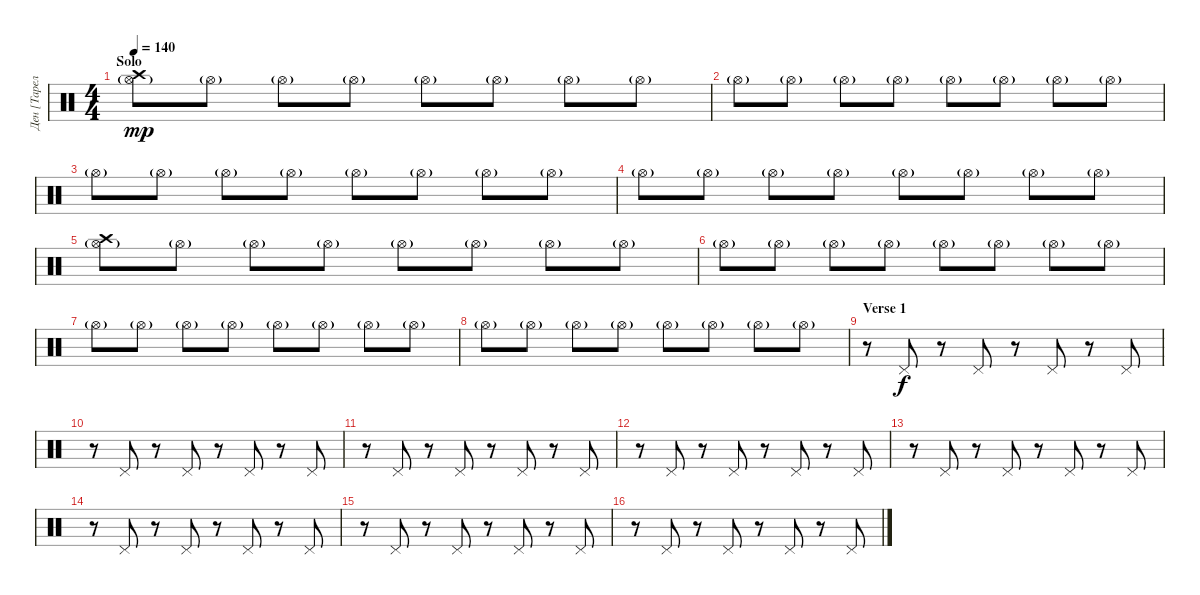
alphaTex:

\track ("Ден [Тарелки]" "Ден [Тарел") {instrument percussion}
\staff {score}
\articulation defaults
\ts (4 4)
\section ("" "Solo")
\tempo 140
\clef neutral
\ks c
("Hi-Hat (open)"{g} "Crash high (hit)").8{dy mp} "Hi-Hat (open)"{g}.8 "Hi-Hat (open)"{g}.8 "Hi-Hat (open)"{g}.8 "Hi-Hat (open)"{g}.8 "Hi-Hat (open)"{g}.8 "Hi-Hat (open)"{g}.8 "Hi-Hat (open)"{g}.8 |
"Hi-Hat (open)"{g}.8 "Hi-Hat (open)"{g}.8 "Hi-Hat (open)"{g}.8 "Hi-Hat (open)"{g}.8 "Hi-Hat (open)"{g}.8 "Hi-Hat (open)"{g}.8 "Hi-Hat (open)"{g}.8 "Hi-Hat (open)"{g}.8 |
"Hi-Hat (open)"{g}.8 "Hi-Hat (open)"{g}.8 "Hi-Hat (open)"{g}.8 "Hi-Hat (open)"{g}.8 "Hi-Hat (open)"{g}.8 "Hi-Hat (open)"{g}.8 "Hi-Hat (open)"{g}.8 "Hi-Hat (open)"{g}.8 |
"Hi-Hat (open)"{g}.8 "Hi-Hat (open)"{g}.8 "Hi-Hat (open)"{g}.8 "Hi-Hat (open)"{g}.8 "Hi-Hat (open)"{g}.8 "Hi-Hat (open)"{g}.8 "Hi-Hat (open)"{g}.8 "Hi-Hat (open)"{g}.8 |
("Hi-Hat (open)"{g} "Crash high (hit)").8 "Hi-Hat (open)"{g}.8 "Hi-Hat (open)"{g}.8 "Hi-Hat (open)"{g}.8 "Hi-Hat (open)"{g}.8 "Hi-Hat (open)"{g}.8 "Hi-Hat (open)"{g}.8 "Hi-Hat (open)"{g}.8 |
"Hi-Hat (open)"{g}.8 "Hi-Hat (open)"{g}.8 "Hi-Hat (open)"{g}.8 "Hi-Hat (open)"{g}.8 "Hi-Hat (open)"{g}.8 "Hi-Hat (open)"{g}.8 "Hi-Hat (open)"{g}.8 "Hi-Hat (open)"{g}.8 |
"Hi-Hat (open)"{g}.8 "Hi-Hat (open)"{g}.8 "Hi-Hat (open)"{g}.8 "Hi-Hat (open)"{g}.8 "Hi-Hat (open)"{g}.8 "Hi-Hat (open)"{g}.8 "Hi-Hat (open)"{g}.8 "Hi-Hat (open)"{g}.8 |
"Hi-Hat (open)"{g}.8 "Hi-Hat (open)"{g}.8 "Hi-Hat (open)"{g}.8 "Hi-Hat (open)"{g}.8 "Hi-Hat (open)"{g}.8 "Hi-Hat (open)"{g}.8 "Hi-Hat (open)"{g}.8 "Hi-Hat (open)"{g}.8 |
\section ("" "Verse 1")
r.8 "Pedal Hi-Hat (hit)".8{dy f} r.8 "Pedal Hi-Hat (hit)".8 r.8 "Pedal Hi-Hat (hit)".8 r.8 "Pedal Hi-Hat (hit)".8 |
r.8 "Pedal Hi-Hat (hit)".8 r.8 "Pedal Hi-Hat (hit)".8 r.8 "Pedal Hi-Hat (hit)".8 r.8 "Pedal Hi-Hat (hit)".8 |
r.8 "Pedal Hi-Hat (hit)".8 r.8 "Pedal Hi-Hat (hit)".8 r.8 "Pedal Hi-Hat (hit)".8 r.8 "Pedal Hi-Hat (hit)".8 |
r.8 "Pedal Hi-Hat (hit)".8 r.8 "Pedal Hi-Hat (hit)".8 r.8 "Pedal Hi-Hat (hit)".8 r.8 "Pedal Hi-Hat (hit)".8 |
r.8 "Pedal Hi-Hat (hit)".8 r.8 "Pedal Hi-Hat (hit)".8 r.8 "Pedal Hi-Hat (hit)".8 r.8 "Pedal Hi-Hat (hit)".8 |
r.8 "Pedal Hi-Hat (hit)".8 r.8 "Pedal Hi-Hat (hit)".8 r.8 "Pedal Hi-Hat (hit)".8 r.8 "Pedal Hi-Hat (hit)".8 |
r.8 "Pedal Hi-Hat (hit)".8 r.8 "Pedal Hi-Hat (hit)".8 r.8 "Pedal Hi-Hat (hit)".8 r.8 "Pedal Hi-Hat (hit)".8 |
r.8 "Pedal Hi-Hat (hit)".8 r.8 "Pedal Hi-Hat (hit)".8 r.8 "Pedal Hi-Hat (hit)".8 r.8 "Pedal Hi-Hat (hit)".8
